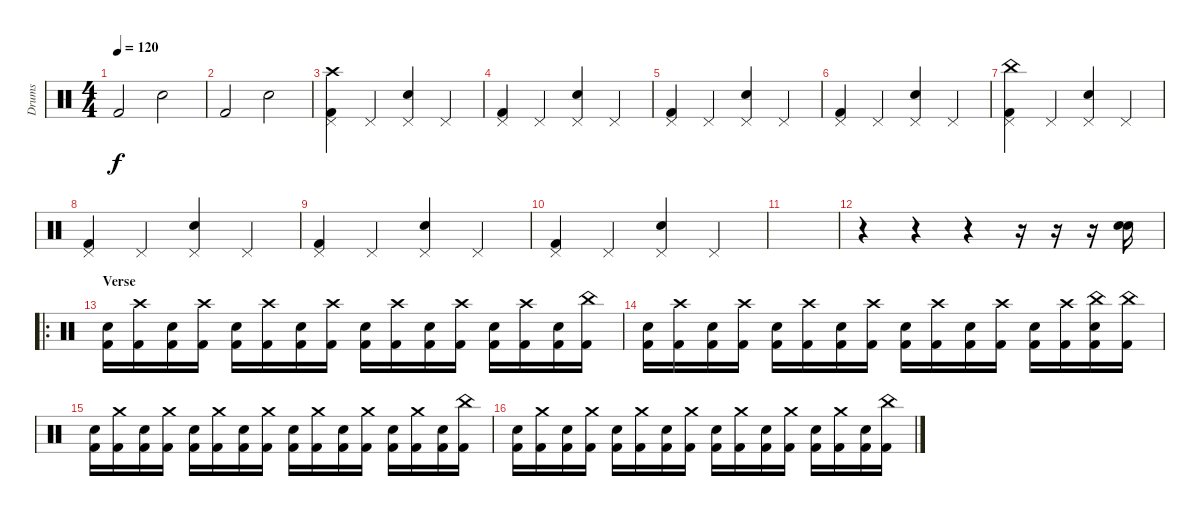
\track ("Drums" "Drums") {instrument percussion}
\staff {score}
\articulation defaults
\ts (4 4)
\tempo 120
\clef neutral
\ks c "Kick (hit) 2".2{dy f} "Electric Snare (hit)".2
|
"Kick (hit) 2".2 "Electric Snare (hit)".2 |
("Pedal Hi-Hat (hit)" "Crash high (hit)" "Kick (hit) 2").4 "Pedal Hi-Hat (hit)".4 ("Pedal Hi-Hat (hit)" "Electric Snare (hit)").4 "Pedal Hi-Hat (hit)".4 |
("Pedal Hi-Hat (hit)" "Kick (hit) 2").4 "Pedal Hi-Hat (hit)".4 ("Pedal Hi-Hat (hit)" "Electric Snare (hit)").4 "Pedal Hi-Hat (hit)".4 |
("Pedal Hi-Hat (hit)" "Kick (hit) 2").4 "Pedal Hi-Hat (hit)".4 ("Pedal Hi-Hat (hit)" "Electric Snare (hit)").4 "Pedal Hi-Hat (hit)".4 |
("Pedal Hi-Hat (hit)" "Kick (hit) 2").4 "Pedal Hi-Hat (hit)".4 ("Pedal Hi-Hat (hit)" "Electric Snare (hit)").4 "Pedal Hi-Hat (hit)".4 |
("Pedal Hi-Hat (hit)" "China (hit)" "Kick (hit) 2").4 "Pedal Hi-Hat (hit)".4 ("Pedal Hi-Hat (hit)" "Electric Snare (hit)").4 "Pedal Hi-Hat (hit)".4 |
("Pedal Hi-Hat (hit)" "Kick (hit) 2").4 "Pedal Hi-Hat (hit)".4 ("Pedal Hi-Hat (hit)" "Electric Snare (hit)").4 "Pedal Hi-Hat (hit)".4 |
("Pedal Hi-Hat (hit)" "Kick (hit) 2").4 "Pedal Hi-Hat (hit)".4 ("Pedal Hi-Hat (hit)" "Electric Snare (hit)").4 "Pedal Hi-Hat (hit)".4 |
("Pedal Hi-Hat (hit)" "Kick (hit) 2").4 "Pedal Hi-Hat (hit)".4 ("Pedal Hi-Hat (hit)" "Electric Snare (hit)").4 "Pedal Hi-Hat (hit)".4 |
|
r.4 r.4 r.4 r.16 r.16 r.16 ("Electric Snare (hit)" "Electric Snare (hit)").16 |
\ro
\section ("" "Verse")
("Kick (hit) 2" "Electric Snare (hit)").16 ("Kick (hit) 2" "Crash high (hit)").16 ("Kick (hit) 2" "Electric Snare (hit)").16 ("Kick (hit) 2" "Crash high (hit)").16 ("Kick (hit) 2" "Electric Snare (hit)").16 ("Kick (hit) 2" "Crash high (hit)").16 ("Kick (hit) 2" "Electric Snare (hit)").16 ("Kick (hit) 2" "Crash high (hit)").16 ("Kick (hit) 2" "Electric Snare (hit)").16 ("Kick (hit) 2" "Crash high (hit)").16 ("Kick (hit) 2" "Electric Snare (hit)").16 ("Kick (hit) 2" "Crash high (hit)").16 ("Kick (hit) 2" "Electric Snare (hit)").16 ("Kick (hit) 2" "Crash high (hit)").16 ("Kick (hit) 2" "Electric Snare (hit)").16 ("Kick (hit) 2" "China (hit)").16 |
("Kick (hit) 2" "Electric Snare (hit)").16 ("Kick (hit) 2" "Crash high (hit)").16 ("Kick (hit) 2" "Electric Snare (hit)").16 ("Kick (hit) 2" "Crash high (hit)").16 ("Kick (hit) 2" "Electric Snare (hit)").16 ("Kick (hit) 2" "Crash high (hit)").16 ("Kick (hit) 2" "Electric Snare (hit)").16 ("Kick (hit) 2" "Crash high (hit)").16 ("Kick (hit) 2" "Electric Snare (hit)").16 ("Kick (hit) 2" "Crash high (hit)").16 ("Kick (hit) 2" "Electric Snare (hit)").16 ("Kick (hit) 2" "Crash high (hit)").16 ("Kick (hit) 2" "Electric Snare (hit)").16 ("Kick (hit) 2" "Crash high (hit)").16 ("Kick (hit) 2" "China (hit)" "Electric Snare (hit)").16 ("Kick (hit) 2" "China (hit)").16 |
("Kick (hit) 2" "Electric Snare (hit)").16 ("Kick (hit) 2" "Crash medium (hit)").16 ("Kick (hit) 2" "Electric Snare (hit)").16 ("Kick (hit) 2" "Crash medium (hit)").16 ("Kick (hit) 2" "Electric Snare (hit)").16 ("Kick (hit) 2" "Crash medium (hit)").16 ("Kick (hit) 2" "Electric Snare (hit)").16 ("Kick (hit) 2" "Crash medium (hit)").16 ("Kick (hit) 2" "Electric Snare (hit)").16 ("Kick (hit) 2" "Crash medium (hit)").16 ("Kick (hit) 2" "Electric Snare (hit)").16 ("Kick (hit) 2" "Crash medium (hit)").16 ("Kick (hit) 2" "Electric Snare (hit)").16 ("Kick (hit) 2" "Crash medium (hit)").16 ("Kick (hit) 2" "Electric Snare (hit)").16 ("Kick (hit) 2" "China (hit)").16 |
("Kick (hit) 2" "Electric Snare (hit)").16 ("Kick (hit) 2" "Crash medium (hit)").16 ("Kick (hit) 2" "Electric Snare (hit)").16 ("Kick (hit) 2" "Crash medium (hit)").16 ("Kick (hit) 2" "Electric Snare (hit)").16 ("Kick (hit) 2" "Crash medium (hit)").16 ("Kick (hit) 2" "Electric Snare (hit)").16 ("Kick (hit) 2" "Crash medium (hit)").16 ("Kick (hit) 2" "Electric Snare (hit)").16 ("Kick (hit) 2" "Crash medium (hit)").16 ("Kick (hit) 2" "Electric Snare (hit)").16 ("Kick (hit) 2" "Crash medium (hit)").16 ("Kick (hit) 2" "Electric Snare (hit)").16 ("Kick (hit) 2" "Crash medium (hit)").16 ("Kick (hit) 2" "Electric Snare (hit)").16 ("Kick (hit) 2" "China (hit)").16
